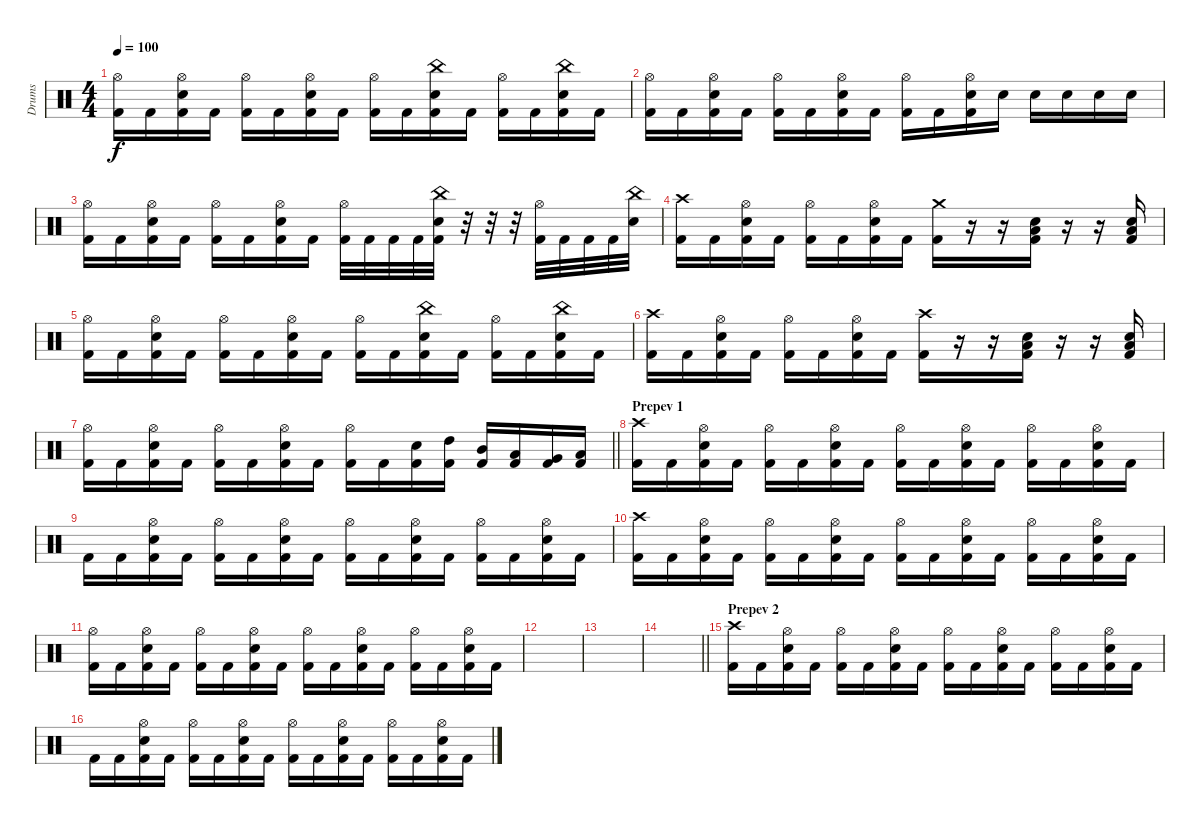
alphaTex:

\track ("Drums" "Drums") {instrument percussion}
\staff {score}
\articulation defaults
\ts (4 4)
\tempo 100
\clef neutral
\ks c
("Hi-Hat (open)" "Kick (hit) 2").16{dy f} "Kick (hit) 2".16 ("Hi-Hat (open)" "Snare (hit) 2" "Kick (hit) 2").16 "Kick (hit) 2".16 ("Hi-Hat (open)" "Kick (hit) 2").16 "Kick (hit) 2".16 ("Hi-Hat (open)" "Snare (hit) 2" "Kick (hit) 2").16 "Kick (hit) 2".16 ("Hi-Hat (open)" "Kick (hit) 2").16 "Kick (hit) 2".16 ("China (hit)" "Snare (hit) 2" "Kick (hit) 2").16 "Kick (hit) 2".16 ("Hi-Hat (open)" "Kick (hit) 2").16 "Kick (hit) 2".16 ("China (hit)" "Snare (hit) 2" "Kick (hit) 2").16 "Kick (hit) 2".16 |
("Hi-Hat (open)" "Kick (hit) 2").16 "Kick (hit) 2".16 ("Hi-Hat (open)" "Snare (hit) 2" "Kick (hit) 2").16 "Kick (hit) 2".16 ("Hi-Hat (open)" "Kick (hit) 2").16 "Kick (hit) 2".16 ("Hi-Hat (open)" "Snare (hit) 2" "Kick (hit) 2").16 "Kick (hit) 2".16 ("Hi-Hat (open)" "Kick (hit) 2").16 "Kick (hit) 2".16 ("Hi-Hat (open)" "Snare (hit) 2" "Kick (hit) 2").16 "Snare (hit) 2".16 "Snare (hit) 2".16 "Snare (hit) 2".16 "Snare (hit) 2".16 "Snare (hit) 2".16 |
("Hi-Hat (open)" "Kick (hit) 2").16 "Kick (hit) 2".16 ("Hi-Hat (open)" "Snare (hit) 2" "Kick (hit) 2").16 "Kick (hit) 2".16 ("Hi-Hat (open)" "Kick (hit) 2").16 "Kick (hit) 2".16 ("Hi-Hat (open)" "Snare (hit) 2" "Kick (hit) 2").16 "Kick (hit) 2".16 ("Hi-Hat (open)" "Kick (hit) 2").32 "Kick (hit) 2".32 "Kick (hit) 2".32 "Kick (hit) 2".32 ("China (hit)" "Snare (hit) 2" "Kick (hit) 2").32 r.32 r.32 r.32 ("Hi-Hat (open)" "Kick (hit) 2").32 "Kick (hit) 2".32 "Kick (hit) 2".32 "Kick (hit) 2".32 ("China (hit)" "Snare (hit) 2").32 |
("Crash high (hit)" "Kick (hit) 2").16 "Kick (hit) 2".16 ("Hi-Hat (open)" "Snare (hit) 2" "Kick (hit) 2").16 "Kick (hit) 2".16 ("Hi-Hat (open)" "Kick (hit) 2").16 "Kick (hit) 2".16 ("Hi-Hat (open)" "Snare (hit) 2" "Kick (hit) 2").16 "Kick (hit) 2".16 ("Crash medium (hit)" "Kick (hit) 2").16 r.16 r.16 ("Snare (hit) 2" "Low Floor Tom (hit)" "Kick (hit) 2").16 r.16 r.16 ("Snare (hit) 2" "Low Floor Tom (hit)" "Kick (hit) 2").16 |
("Hi-Hat (open)" "Kick (hit) 2").16 "Kick (hit) 2".16 ("Hi-Hat (open)" "Snare (hit) 2" "Kick (hit) 2").16 "Kick (hit) 2".16 ("Hi-Hat (open)" "Kick (hit) 2").16 "Kick (hit) 2".16 ("Hi-Hat (open)" "Snare (hit) 2" "Kick (hit) 2").16 "Kick (hit) 2".16 ("Hi-Hat (open)" "Kick (hit) 2").16 "Kick (hit) 2".16 ("China (hit)" "Snare (hit) 2" "Kick (hit) 2").16 "Kick (hit) 2".16 ("Hi-Hat (open)" "Kick (hit) 2").16 "Kick (hit) 2".16 ("China (hit)" "Snare (hit) 2" "Kick (hit) 2").16 "Kick (hit) 2".16 |
("Crash high (hit)" "Kick (hit) 2").16 "Kick (hit) 2".16 ("Hi-Hat (open)" "Snare (hit) 2" "Kick (hit) 2").16 "Kick (hit) 2".16 ("Hi-Hat (open)" "Kick (hit) 2").16 "Kick (hit) 2".16 ("Hi-Hat (open)" "Snare (hit) 2" "Kick (hit) 2").16 "Kick (hit) 2".16 ("Crash high (hit)" "Kick (hit) 2").16 r.16 r.16 ("Snare (hit) 2" "Low Floor Tom (hit)" "Kick (hit) 2").16 r.16 r.16 ("Snare (hit) 2" "Low Floor Tom (hit)" "Kick (hit) 2").16 |
\barLineRight lightlight
("Hi-Hat (open)" "Kick (hit) 2").16 "Kick (hit) 2".16 ("Hi-Hat (open)" "Snare (hit) 2" "Kick (hit) 2").16 "Kick (hit) 2".16 ("Hi-Hat (open)" "Kick (hit) 2").16 "Kick (hit) 2".16 ("Hi-Hat (open)" "Snare (hit) 2" "Kick (hit) 2").16 "Kick (hit) 2".16 ("Hi-Hat (open)" "Kick (hit) 2").16 "Kick (hit) 2".16 ("Snare (hit) 2" "Kick (hit) 2").16 ("High Tom (hit)" "Kick (hit) 2").16 ("Mid Tom (hit)" "Kick (hit) 2").16 ("Low Tom (hit)" "Kick (hit) 2").16 ("Very Low Tom (hit)" "Kick (hit) 2").16 ("Low Floor Tom (hit)" "Kick (hit) 2").16 |
\section ("" "Prepev 1")
("Crash high (hit)" "Kick (hit) 2").16 "Kick (hit) 2".16 ("Hi-Hat (open)" "Snare (hit) 2" "Kick (hit) 2").16 "Kick (hit) 2".16 ("Hi-Hat (open)" "Kick (hit) 2").16 "Kick (hit) 2".16 ("Hi-Hat (open)" "Snare (hit) 2" "Kick (hit) 2").16 "Kick (hit) 2".16 ("Hi-Hat (open)" "Kick (hit) 2").16 "Kick (hit) 2".16 ("Hi-Hat (open)" "Snare (hit) 2" "Kick (hit) 2").16 "Kick (hit) 2".16 ("Hi-Hat (open)" "Kick (hit) 2").16 "Kick (hit) 2".16 ("Hi-Hat (open)" "Snare (hit) 2" "Kick (hit) 2").16 "Kick (hit) 2".16 |
"Kick (hit) 2".16 "Kick (hit) 2".16 ("Hi-Hat (open)" "Snare (hit) 2" "Kick (hit) 2").16 "Kick (hit) 2".16 ("Hi-Hat (open)" "Kick (hit) 2").16 "Kick (hit) 2".16 ("Hi-Hat (open)" "Snare (hit) 2" "Kick (hit) 2").16 "Kick (hit) 2".16 ("Hi-Hat (open)" "Kick (hit) 2").16 "Kick (hit) 2".16 ("Hi-Hat (open)" "Snare (hit) 2" "Kick (hit) 2").16 "Kick (hit) 2".16 ("Hi-Hat (open)" "Kick (hit) 2").16 "Kick (hit) 2".16 ("Hi-Hat (open)" "Snare (hit) 2" "Kick (hit) 2").16 "Kick (hit) 2".16 |
("Crash high (hit)" "Kick (hit) 2").16 "Kick (hit) 2".16 ("Hi-Hat (open)" "Snare (hit) 2" "Kick (hit) 2").16 "Kick (hit) 2".16 ("Hi-Hat (open)" "Kick (hit) 2").16 "Kick (hit) 2".16 ("Hi-Hat (open)" "Snare (hit) 2" "Kick (hit) 2").16 "Kick (hit) 2".16 ("Hi-Hat (open)" "Kick (hit) 2").16 "Kick (hit) 2".16 ("Hi-Hat (open)" "Snare (hit) 2" "Kick (hit) 2").16 "Kick (hit) 2".16 ("Hi-Hat (open)" "Kick (hit) 2").16 "Kick (hit) 2".16 ("Hi-Hat (open)" "Snare (hit) 2" "Kick (hit) 2").16 "Kick (hit) 2".16 |
("Hi-Hat (open)" "Kick (hit) 2").16 "Kick (hit) 2".16 ("Hi-Hat (open)" "Snare (hit) 2" "Kick (hit) 2").16 "Kick (hit) 2".16 ("Hi-Hat (open)" "Kick (hit) 2").16 "Kick (hit) 2".16 ("Hi-Hat (open)" "Snare (hit) 2" "Kick (hit) 2").16 "Kick (hit) 2".16 ("Hi-Hat (open)" "Kick (hit) 2").16 "Kick (hit) 2".16 ("Hi-Hat (open)" "Snare (hit) 2" "Kick (hit) 2").16 "Kick (hit) 2".16 ("Hi-Hat (open)" "Kick (hit) 2").16 "Kick (hit) 2".16 ("Hi-Hat (open)" "Snare (hit) 2" "Kick (hit) 2").16 "Kick (hit) 2".16 |
|
|
\barLineRight lightlight
|
\section ("" "Prepev 2")
("Crash high (hit)" "Kick (hit) 2").16 "Kick (hit) 2".16 ("Hi-Hat (open)" "Snare (hit) 2" "Kick (hit) 2").16 "Kick (hit) 2".16 ("Hi-Hat (open)" "Kick (hit) 2").16 "Kick (hit) 2".16 ("Hi-Hat (open)" "Snare (hit) 2" "Kick (hit) 2").16 "Kick (hit) 2".16 ("Hi-Hat (open)" "Kick (hit) 2").16 "Kick (hit) 2".16 ("Hi-Hat (open)" "Snare (hit) 2" "Kick (hit) 2").16 "Kick (hit) 2".16 ("Hi-Hat (open)" "Kick (hit) 2").16 "Kick (hit) 2".16 ("Hi-Hat (open)" "Snare (hit) 2" "Kick (hit) 2").16 "Kick (hit) 2".16 |
"Kick (hit) 2".16 "Kick (hit) 2".16 ("Hi-Hat (open)" "Snare (hit) 2" "Kick (hit) 2").16 "Kick (hit) 2".16 ("Hi-Hat (open)" "Kick (hit) 2").16 "Kick (hit) 2".16 ("Hi-Hat (open)" "Snare (hit) 2" "Kick (hit) 2").16 "Kick (hit) 2".16 ("Hi-Hat (open)" "Kick (hit) 2").16 "Kick (hit) 2".16 ("Hi-Hat (open)" "Snare (hit) 2" "Kick (hit) 2").16 "Kick (hit) 2".16 ("Hi-Hat (open)" "Kick (hit) 2").16 "Kick (hit) 2".16 ("Hi-Hat (open)" "Snare (hit) 2" "Kick (hit) 2").16 "Kick (hit) 2".16
